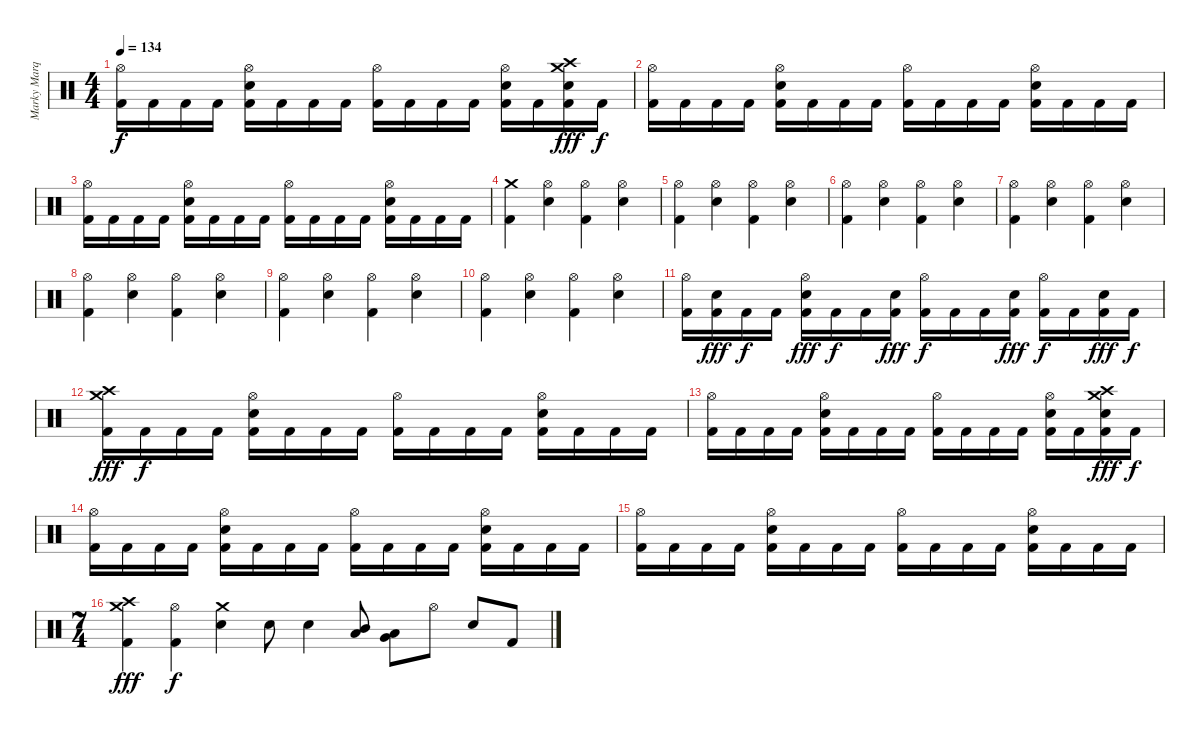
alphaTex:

\track ("Marky Marquis" "Marky Marq") {instrument percussion}
\staff {score}
\articulation defaults
\ts (4 4)
\tempo 134
\clef neutral
\ks c
("Hi-Hat (open)" "Kick (hit) 2").16{dy f} "Kick (hit) 2".16 "Kick (hit) 2".16 "Kick (hit) 2".16 ("Hi-Hat (open)" "Electric Snare (hit)" "Kick (hit) 2").16 "Kick (hit) 2".16 "Kick (hit) 2".16 "Kick (hit) 2".16 ("Hi-Hat (open)" "Kick (hit) 2").16 "Kick (hit) 2".16 "Kick (hit) 2".16 "Kick (hit) 2".16 ("Hi-Hat (open)" "Electric Snare (hit)" "Kick (hit) 2").16 "Kick (hit) 2".16 ("Crash high (hit)" "Crash medium (hit)" "Electric Snare (hit)" "Kick (hit) 2").16{dy fff} "Kick (hit) 2".16{dy f} |
("Hi-Hat (open)" "Kick (hit) 2").16 "Kick (hit) 2".16 "Kick (hit) 2".16 "Kick (hit) 2".16 ("Hi-Hat (open)" "Electric Snare (hit)" "Kick (hit) 2").16 "Kick (hit) 2".16 "Kick (hit) 2".16 "Kick (hit) 2".16 ("Hi-Hat (open)" "Kick (hit) 2").16 "Kick (hit) 2".16 "Kick (hit) 2".16 "Kick (hit) 2".16 ("Hi-Hat (open)" "Electric Snare (hit)" "Kick (hit) 2").16 "Kick (hit) 2".16 "Kick (hit) 2".16 "Kick (hit) 2".16 |
("Hi-Hat (open)" "Kick (hit) 2").16 "Kick (hit) 2".16 "Kick (hit) 2".16 "Kick (hit) 2".16 ("Hi-Hat (open)" "Electric Snare (hit)" "Kick (hit) 2").16 "Kick (hit) 2".16 "Kick (hit) 2".16 "Kick (hit) 2".16 ("Hi-Hat (open)" "Kick (hit) 2").16 "Kick (hit) 2".16 "Kick (hit) 2".16 "Kick (hit) 2".16 ("Hi-Hat (open)" "Electric Snare (hit)" "Kick (hit) 2").16 "Kick (hit) 2".16 "Kick (hit) 2".16 "Kick (hit) 2".16 |
("Crash medium (hit)" "Kick (hit) 2").4 ("Hi-Hat (open)" "Electric Snare (hit)").4 ("Hi-Hat (open)" "Kick (hit) 2").4 ("Hi-Hat (open)" "Electric Snare (hit)").4 |
("Hi-Hat (open)" "Kick (hit) 2").4 ("Hi-Hat (open)" "Electric Snare (hit)").4 ("Hi-Hat (open)" "Kick (hit) 2").4 ("Hi-Hat (open)" "Electric Snare (hit)").4 |
("Hi-Hat (open)" "Kick (hit) 2").4 ("Hi-Hat (open)" "Electric Snare (hit)").4 ("Hi-Hat (open)" "Kick (hit) 2").4 ("Hi-Hat (open)" "Electric Snare (hit)").4 |
("Hi-Hat (open)" "Kick (hit) 2").4 ("Hi-Hat (open)" "Electric Snare (hit)").4 ("Hi-Hat (open)" "Kick (hit) 2").4 ("Hi-Hat (open)" "Electric Snare (hit)").4 |
("Hi-Hat (open)" "Kick (hit) 2").4 ("Hi-Hat (open)" "Electric Snare (hit)").4 ("Hi-Hat (open)" "Kick (hit) 2").4 ("Hi-Hat (open)" "Electric Snare (hit)").4 |
("Hi-Hat (open)" "Kick (hit) 2").4 ("Hi-Hat (open)" "Electric Snare (hit)").4 ("Hi-Hat (open)" "Kick (hit) 2").4 ("Hi-Hat (open)" "Electric Snare (hit)").4 |
("Hi-Hat (open)" "Kick (hit) 2").4 ("Hi-Hat (open)" "Electric Snare (hit)").4 ("Hi-Hat (open)" "Kick (hit) 2").4 ("Hi-Hat (open)" "Electric Snare (hit)").4 |
("Hi-Hat (open)" "Kick (hit) 2").16 ("Electric Snare (hit)" "Kick (hit) 2").16{dy fff} "Kick (hit) 2".16{dy f} "Kick (hit) 2".16 ("Hi-Hat (open)" "Electric Snare (hit)" "Kick (hit) 2").16{dy fff} "Kick (hit) 2".16{dy f} "Kick (hit) 2".16 ("Electric Snare (hit)" "Kick (hit) 2").16{dy fff} ("Hi-Hat (open)" "Kick (hit) 2").16{dy f} "Kick (hit) 2".16 "Kick (hit) 2".16 ("Electric Snare (hit)" "Kick (hit) 2").16{dy fff} ("Hi-Hat (open)" "Kick (hit) 2").16{dy f} "Kick (hit) 2".16 ("Electric Snare (hit)" "Kick (hit) 2").16{dy fff} "Kick (hit) 2".16{dy f} |
("Crash high (hit)" "Crash medium (hit)" "Kick (hit) 2").16{dy fff} "Kick (hit) 2".16{dy f} "Kick (hit) 2".16 "Kick (hit) 2".16 ("Hi-Hat (open)" "Electric Snare (hit)" "Kick (hit) 2").16 "Kick (hit) 2".16 "Kick (hit) 2".16 "Kick (hit) 2".16 ("Hi-Hat (open)" "Kick (hit) 2").16 "Kick (hit) 2".16 "Kick (hit) 2".16 "Kick (hit) 2".16 ("Hi-Hat (open)" "Electric Snare (hit)" "Kick (hit) 2").16 "Kick (hit) 2".16 "Kick (hit) 2".16 "Kick (hit) 2".16 |
("Hi-Hat (open)" "Kick (hit) 2").16 "Kick (hit) 2".16 "Kick (hit) 2".16 "Kick (hit) 2".16 ("Hi-Hat (open)" "Electric Snare (hit)" "Kick (hit) 2").16 "Kick (hit) 2".16 "Kick (hit) 2".16 "Kick (hit) 2".16 ("Hi-Hat (open)" "Kick (hit) 2").16 "Kick (hit) 2".16 "Kick (hit) 2".16 "Kick (hit) 2".16 ("Hi-Hat (open)" "Electric Snare (hit)" "Kick (hit) 2").16 "Kick (hit) 2".16 ("Crash high (hit)" "Crash medium (hit)" "Electric Snare (hit)" "Kick (hit) 2").16{dy fff} "Kick (hit) 2".16{dy f} |
("Hi-Hat (open)" "Kick (hit) 2").16 "Kick (hit) 2".16 "Kick (hit) 2".16 "Kick (hit) 2".16 ("Hi-Hat (open)" "Electric Snare (hit)" "Kick (hit) 2").16 "Kick (hit) 2".16 "Kick (hit) 2".16 "Kick (hit) 2".16 ("Hi-Hat (open)" "Kick (hit) 2").16 "Kick (hit) 2".16 "Kick (hit) 2".16 "Kick (hit) 2".16 ("Hi-Hat (open)" "Electric Snare (hit)" "Kick (hit) 2").16 "Kick (hit) 2".16 "Kick (hit) 2".16 "Kick (hit) 2".16 |
("Hi-Hat (open)" "Kick (hit) 2").16 "Kick (hit) 2".16 "Kick (hit) 2".16 "Kick (hit) 2".16 ("Hi-Hat (open)" "Electric Snare (hit)" "Kick (hit) 2").16 "Kick (hit) 2".16 "Kick (hit) 2".16 "Kick (hit) 2".16 ("Hi-Hat (open)" "Kick (hit) 2").16 "Kick (hit) 2".16 "Kick (hit) 2".16 "Kick (hit) 2".16 ("Hi-Hat (open)" "Electric Snare (hit)" "Kick (hit) 2").16 "Kick (hit) 2".16 "Kick (hit) 2".16 "Kick (hit) 2".16 |
\ts (7 4)
("Crash medium (hit)" "Crash high (hit)" "Kick (hit) 2").4{dy fff} ("Hi-Hat (open)" "Kick (hit) 2").4{dy f} ("Crash medium (hit)" "Electric Snare (hit)").4 "Electric Snare (hit)".8 "Electric Snare (hit)".4 ("Mid Tom (hit)" "Low Tom (hit)").8 ("Low Tom (hit)" "Very Low Tom (hit)").8 "Hi-Hat (open)".8 "Electric Snare (hit)".8 "Kick (hit) 2".8
